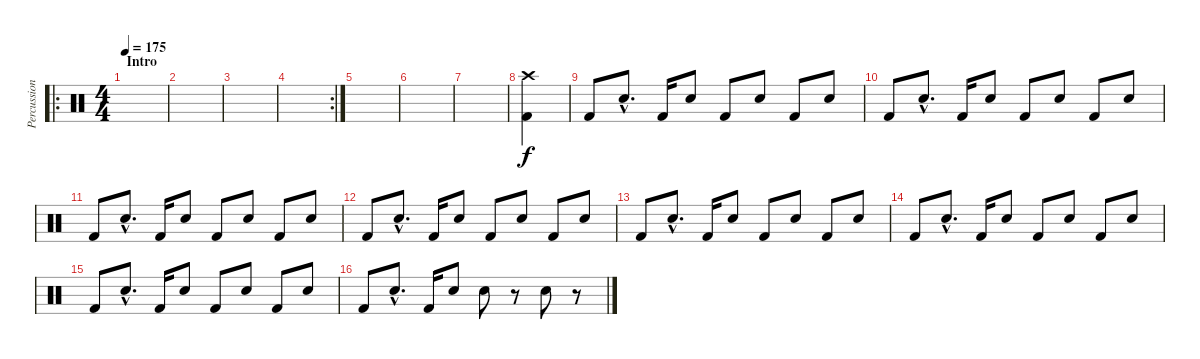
\track ("Percussion" "Percussion") {instrument percussion}
\staff {score}
\articulation defaults
\ro
\ts (4 4)
\section ("" "Intro")
\tempo 175
\clef neutral
\ks c
|
|
|
\rc 2
|
|
|
|
("Crash high (hit)" "Kick (hit) 2").4 |
"Kick (hit) 2".8 "Snare (hit) 2"{hac}.8{d} "Kick (hit) 2".16 "Snare (hit) 2".8 "Kick (hit) 2".8 "Snare (hit) 2".8 "Kick (hit) 2".8 "Snare (hit) 2".8 |
"Kick (hit) 2".8 "Snare (hit) 2"{hac}.8{d} "Kick (hit) 2".16 "Snare (hit) 2".8 "Kick (hit) 2".8 "Snare (hit) 2".8 "Kick (hit) 2".8 "Snare (hit) 2".8 |
"Kick (hit) 2".8 "Snare (hit) 2"{hac}.8{d} "Kick (hit) 2".16 "Snare (hit) 2".8 "Kick (hit) 2".8 "Snare (hit) 2".8 "Kick (hit) 2".8 "Snare (hit) 2".8 |
"Kick (hit) 2".8 "Snare (hit) 2"{hac}.8{d} "Kick (hit) 2".16 "Snare (hit) 2".8 "Kick (hit) 2".8 "Snare (hit) 2".8 "Kick (hit) 2".8 "Snare (hit) 2".8 |
"Kick (hit) 2".8 "Snare (hit) 2"{hac}.8{d} "Kick (hit) 2".16 "Snare (hit) 2".8 "Kick (hit) 2".8 "Snare (hit) 2".8 "Kick (hit) 2".8 "Snare (hit) 2".8 |
"Kick (hit) 2".8 "Snare (hit) 2"{hac}.8{d} "Kick (hit) 2".16 "Snare (hit) 2".8 "Kick (hit) 2".8 "Snare (hit) 2".8 "Kick (hit) 2".8 "Snare (hit) 2".8 |
"Kick (hit) 2".8 "Snare (hit) 2"{hac}.8{d} "Kick (hit) 2".16 "Snare (hit) 2".8 "Kick (hit) 2".8 "Snare (hit) 2".8 "Kick (hit) 2".8 "Snare (hit) 2".8 |
"Kick (hit) 2".8 "Snare (hit) 2"{hac}.8{d} "Kick (hit) 2".16 "Snare (hit) 2".8 "Snare (hit) 2".8 r.8 "Snare (hit) 2".8 r.8
